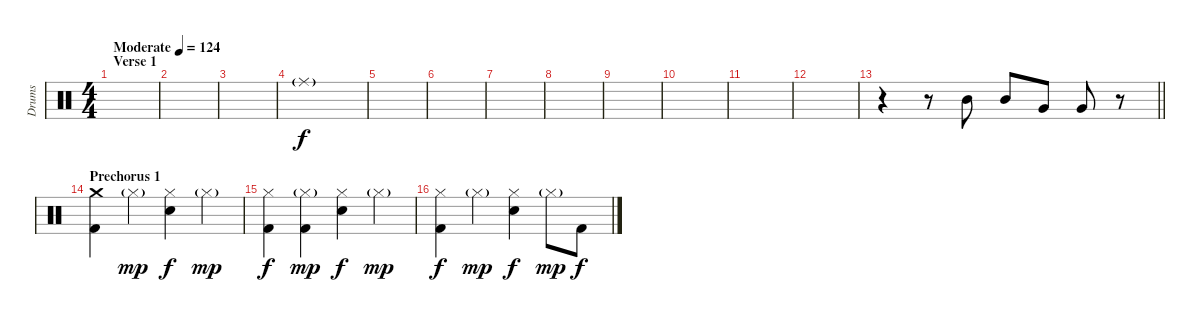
\track ("Drums" "Drums") {instrument percussion}
\staff {score}
\articulation defaults
\ts (4 4)
\section ("" "Verse 1")
\tempo (124 "Moderate")
\clef neutral
\ks c
|
|
|
"Ride (middle)"{g}.1 |
|
|
|
|
|
|
|
|
\barLineRight lightlight
r.4 r.8 "Mid Tom (hit)".8{dy f} "Mid Tom (hit)".8 "Very Low Tom (hit)".8 "Very Low Tom (hit)".8 r.8 |
\section ("" "Prechorus 1")
("Crash medium (hit)" "Kick (hit) 2").4 "Hi-Hat (closed)"{g}.4{dy mp} ("Hi-Hat (closed)" "Snare (hit) 2").4{dy f} "Hi-Hat (closed)"{g}.4{dy mp} |
("Hi-Hat (closed)" "Kick (hit) 2").4{dy f} ("Hi-Hat (closed)"{g} "Kick (hit) 2").4{dy mp} ("Hi-Hat (closed)" "Snare (hit) 2").4{dy f} "Hi-Hat (closed)"{g}.4{dy mp} |
("Hi-Hat (closed)" "Kick (hit) 2").4{dy f} "Hi-Hat (closed)"{g}.4{dy mp} ("Hi-Hat (closed)" "Snare (hit) 2").4{dy f} "Hi-Hat (closed)"{g}.8{dy mp} "Kick (hit) 2".8{dy f}
